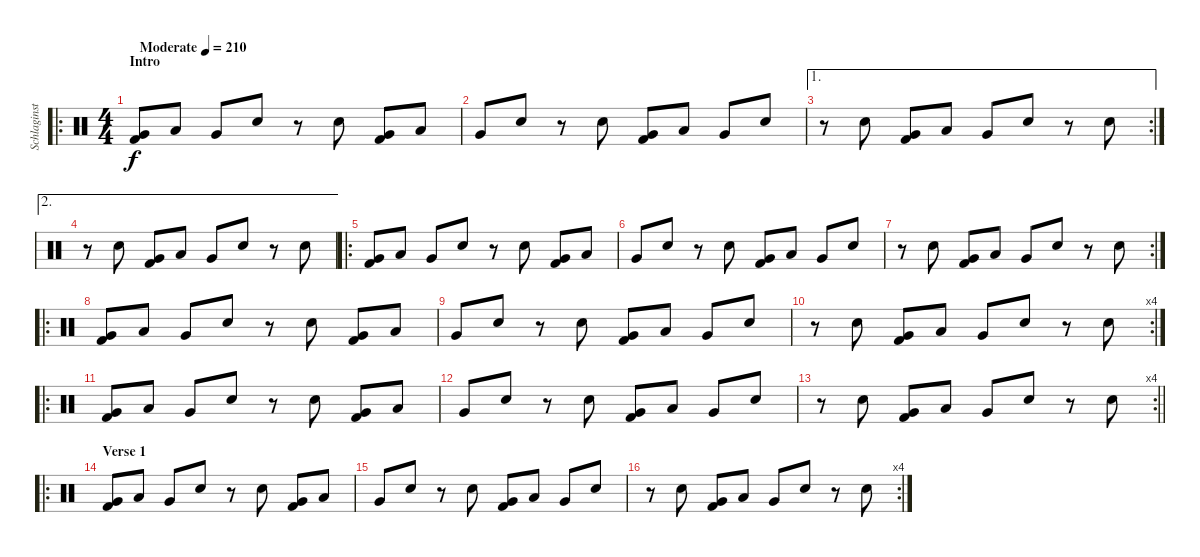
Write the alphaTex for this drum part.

\track ("Schlaginstrumente - Auswahl" "Schlaginst") {instrument percussion}
\staff {score}
\articulation defaults
\ro
\ts (4 4)
\section ("" "Intro")
\tempo (210 "Moderate")
\clef neutral
\ks c
("Kick (hit) 2" "Very Low Tom (hit)").8{dy f} "Low Tom (hit)".8 "Very Low Tom (hit)".8 "Electric Snare (hit)".8 r.8 "Electric Snare (hit)".8 ("Kick (hit) 2" "Very Low Tom (hit)").8 "Low Tom (hit)".8 |
"Very Low Tom (hit)".8 "Electric Snare (hit)".8 r.8 "Electric Snare (hit)".8 ("Kick (hit) 2" "Very Low Tom (hit)").8 "Low Tom (hit)".8 "Very Low Tom (hit)".8 "Electric Snare (hit)".8 |
\ae 1
\rc 2
r.8 "Electric Snare (hit)".8 ("Kick (hit) 2" "Very Low Tom (hit)").8 "Low Tom (hit)".8 "Very Low Tom (hit)".8 "Electric Snare (hit)".8 r.8 "Electric Snare (hit)".8 |
\ae 2
r.8 "Electric Snare (hit)".8 ("Kick (hit) 2" "Very Low Tom (hit)").8 "Low Tom (hit)".8 "Very Low Tom (hit)".8 "Electric Snare (hit)".8 r.8 "Electric Snare (hit)".8 |
\ro
("Kick (hit) 2" "Very Low Tom (hit)").8 "Low Tom (hit)".8 "Very Low Tom (hit)".8 "Electric Snare (hit)".8 r.8 "Electric Snare (hit)".8 ("Kick (hit) 2" "Very Low Tom (hit)").8 "Low Tom (hit)".8 |
"Very Low Tom (hit)".8 "Electric Snare (hit)".8 r.8 "Electric Snare (hit)".8 ("Kick (hit) 2" "Very Low Tom (hit)").8 "Low Tom (hit)".8 "Very Low Tom (hit)".8 "Electric Snare (hit)".8 |
\rc 2
r.8 "Electric Snare (hit)".8 ("Kick (hit) 2" "Very Low Tom (hit)").8 "Low Tom (hit)".8 "Very Low Tom (hit)".8 "Electric Snare (hit)".8 r.8 "Electric Snare (hit)".8 |
\ro
("Kick (hit) 2" "Very Low Tom (hit)").8 "Low Tom (hit)".8 "Very Low Tom (hit)".8 "Electric Snare (hit)".8 r.8 "Electric Snare (hit)".8 ("Kick (hit) 2" "Very Low Tom (hit)").8 "Low Tom (hit)".8 |
"Very Low Tom (hit)".8 "Electric Snare (hit)".8 r.8 "Electric Snare (hit)".8 ("Kick (hit) 2" "Very Low Tom (hit)").8 "Low Tom (hit)".8 "Very Low Tom (hit)".8 "Electric Snare (hit)".8 |
\rc 4
r.8 "Electric Snare (hit)".8 ("Kick (hit) 2" "Very Low Tom (hit)").8 "Low Tom (hit)".8 "Very Low Tom (hit)".8 "Electric Snare (hit)".8 r.8 "Electric Snare (hit)".8 |
\ro
("Kick (hit) 2" "Very Low Tom (hit)").8 "Low Tom (hit)".8 "Very Low Tom (hit)".8 "Electric Snare (hit)".8 r.8 "Electric Snare (hit)".8 ("Kick (hit) 2" "Very Low Tom (hit)").8 "Low Tom (hit)".8 |
"Very Low Tom (hit)".8 "Electric Snare (hit)".8 r.8 "Electric Snare (hit)".8 ("Kick (hit) 2" "Very Low Tom (hit)").8 "Low Tom (hit)".8 "Very Low Tom (hit)".8 "Electric Snare (hit)".8 |
\rc 4
\barLineRight lightlight
r.8 "Electric Snare (hit)".8 ("Kick (hit) 2" "Very Low Tom (hit)").8 "Low Tom (hit)".8 "Very Low Tom (hit)".8 "Electric Snare (hit)".8 r.8 "Electric Snare (hit)".8 |
\ro
\section ("" "Verse 1")
("Kick (hit) 2" "Very Low Tom (hit)").8 "Low Tom (hit)".8 "Very Low Tom (hit)".8 "Electric Snare (hit)".8 r.8 "Electric Snare (hit)".8 ("Kick (hit) 2" "Very Low Tom (hit)").8 "Low Tom (hit)".8 |
"Very Low Tom (hit)".8 "Electric Snare (hit)".8 r.8 "Electric Snare (hit)".8 ("Kick (hit) 2" "Very Low Tom (hit)").8 "Low Tom (hit)".8 "Very Low Tom (hit)".8 "Electric Snare (hit)".8 |
\rc 4
r.8 "Electric Snare (hit)".8 ("Kick (hit) 2" "Very Low Tom (hit)").8 "Low Tom (hit)".8 "Very Low Tom (hit)".8 "Electric Snare (hit)".8 r.8 "Electric Snare (hit)".8
